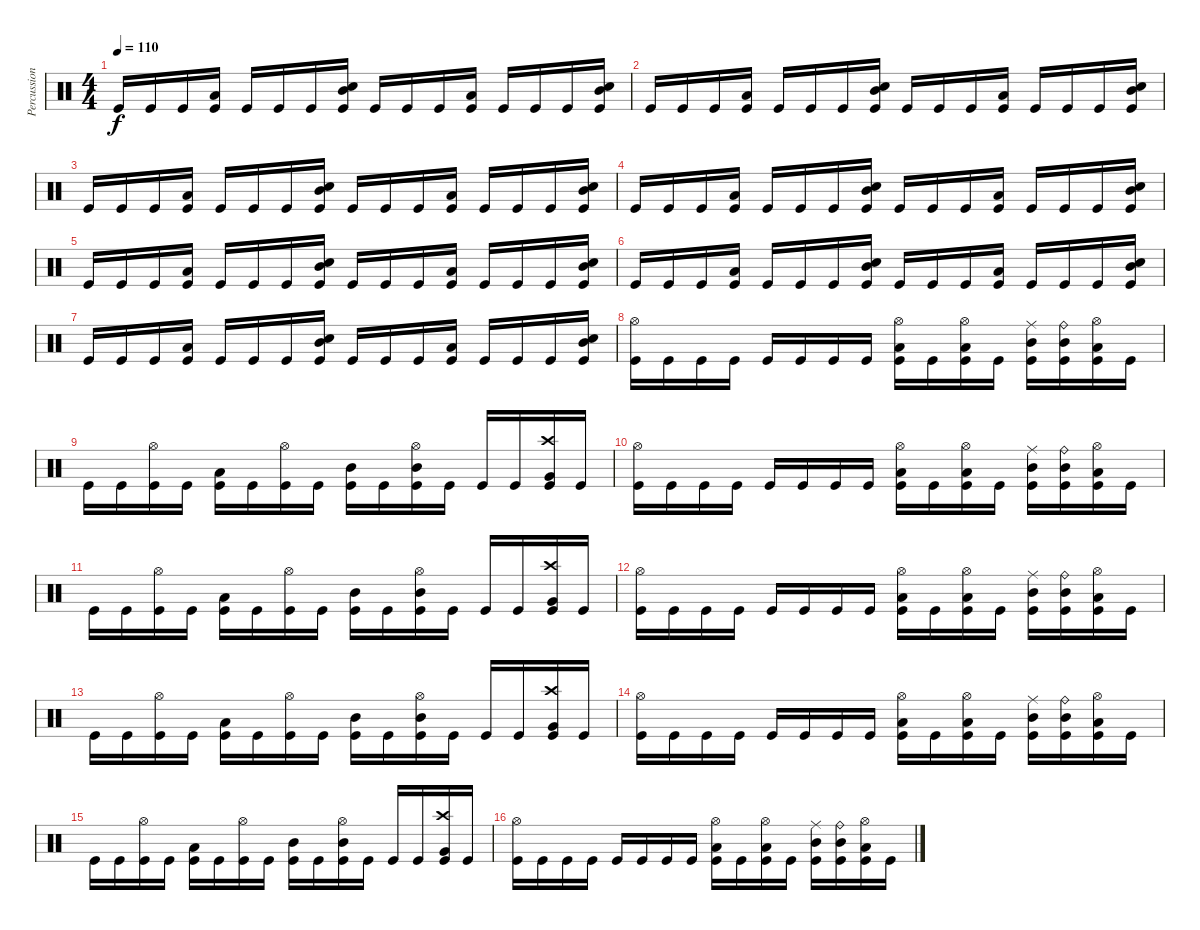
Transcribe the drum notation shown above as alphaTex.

\track ("Percussion" "Percussion") {instrument percussion}
\staff {score}
\articulation defaults
\ts (4 4)
\tempo 110
\clef neutral
\ks c "Kick (hit)".16{dy f} "Kick (hit)".16 "Kick (hit)".16
("Low Tom (hit)" "Kick (hit)").16 "Kick (hit)".16 "Kick (hit)".16 "Kick (hit)".16 ("Mid Tom (hit)" "Electric Snare (hit)" "Kick (hit)").16 "Kick (hit)".16 "Kick (hit)".16 "Kick (hit)".16 ("Low Tom (hit)" "Kick (hit)").16 "Kick (hit)".16 "Kick (hit)".16 "Kick (hit)".16 ("Mid Tom (hit)" "Electric Snare (hit)" "Kick (hit)").16 |
"Kick (hit)".16 "Kick (hit)".16 "Kick (hit)".16 ("Low Tom (hit)" "Kick (hit)").16 "Kick (hit)".16 "Kick (hit)".16 "Kick (hit)".16 ("Mid Tom (hit)" "Electric Snare (hit)" "Kick (hit)").16 "Kick (hit)".16 "Kick (hit)".16 "Kick (hit)".16 ("Low Tom (hit)" "Kick (hit)").16 "Kick (hit)".16 "Kick (hit)".16 "Kick (hit)".16 ("Mid Tom (hit)" "Electric Snare (hit)" "Kick (hit)").16 |
"Kick (hit)".16 "Kick (hit)".16 "Kick (hit)".16 ("Low Tom (hit)" "Kick (hit)").16 "Kick (hit)".16 "Kick (hit)".16 "Kick (hit)".16 ("Mid Tom (hit)" "Electric Snare (hit)" "Kick (hit)").16 "Kick (hit)".16 "Kick (hit)".16 "Kick (hit)".16 ("Low Tom (hit)" "Kick (hit)").16 "Kick (hit)".16 "Kick (hit)".16 "Kick (hit)".16 ("Mid Tom (hit)" "Electric Snare (hit)" "Kick (hit)").16 |
"Kick (hit)".16 "Kick (hit)".16 "Kick (hit)".16 ("Low Tom (hit)" "Kick (hit)").16 "Kick (hit)".16 "Kick (hit)".16 "Kick (hit)".16 ("Mid Tom (hit)" "Electric Snare (hit)" "Kick (hit)").16 "Kick (hit)".16 "Kick (hit)".16 "Kick (hit)".16 ("Low Tom (hit)" "Kick (hit)").16 "Kick (hit)".16 "Kick (hit)".16 "Kick (hit)".16 ("Mid Tom (hit)" "Electric Snare (hit)" "Kick (hit)").16 |
"Kick (hit)".16 "Kick (hit)".16 "Kick (hit)".16 ("Low Tom (hit)" "Kick (hit)").16 "Kick (hit)".16 "Kick (hit)".16 "Kick (hit)".16 ("Mid Tom (hit)" "Electric Snare (hit)" "Kick (hit)").16 "Kick (hit)".16 "Kick (hit)".16 "Kick (hit)".16 ("Low Tom (hit)" "Kick (hit)").16 "Kick (hit)".16 "Kick (hit)".16 "Kick (hit)".16 ("Mid Tom (hit)" "Electric Snare (hit)" "Kick (hit)").16 |
"Kick (hit)".16 "Kick (hit)".16 "Kick (hit)".16 ("Low Tom (hit)" "Kick (hit)").16 "Kick (hit)".16 "Kick (hit)".16 "Kick (hit)".16 ("Mid Tom (hit)" "Electric Snare (hit)" "Kick (hit)").16 "Kick (hit)".16 "Kick (hit)".16 "Kick (hit)".16 ("Low Tom (hit)" "Kick (hit)").16 "Kick (hit)".16 "Kick (hit)".16 "Kick (hit)".16 ("Mid Tom (hit)" "Electric Snare (hit)" "Kick (hit)").16 |
"Kick (hit)".16 "Kick (hit)".16 "Kick (hit)".16 ("Low Tom (hit)" "Kick (hit)").16 "Kick (hit)".16 "Kick (hit)".16 "Kick (hit)".16 ("Mid Tom (hit)" "Electric Snare (hit)" "Kick (hit)").16 "Kick (hit)".16 "Kick (hit)".16 "Kick (hit)".16 ("Low Tom (hit)" "Kick (hit)").16 "Kick (hit)".16 "Kick (hit)".16 "Kick (hit)".16 ("Mid Tom (hit)" "Electric Snare (hit)" "Kick (hit)").16 |
("Hi-Hat (open)" "Kick (hit)").16 "Kick (hit)".16 "Kick (hit)".16 "Kick (hit)".16 "Kick (hit)".16 "Kick (hit)".16 "Kick (hit)".16 "Kick (hit)".16 ("Hi-Hat (open)" "Low Tom (hit)" "Kick (hit)").16 "Kick (hit)".16 ("Hi-Hat (open)" "Low Tom (hit)" "Kick (hit)").16 "Kick (hit)".16 ("Ride (middle)" "Mid Tom (hit)" "Kick (hit)").16 ("Ride (bell)" "Mid Tom (hit)" "Kick (hit)").16 ("Hi-Hat (open)" "Low Tom (hit)" "Kick (hit)").16 "Kick (hit)".16 |
"Kick (hit)".16 "Kick (hit)".16 ("Hi-Hat (open)" "Kick (hit)").16 "Kick (hit)".16 ("Low Tom (hit)" "Kick (hit)").16 "Kick (hit)".16 ("Hi-Hat (open)" "Kick (hit)").16 "Kick (hit)".16 ("Mid Tom (hit)" "Kick (hit)").16 "Kick (hit)".16 ("Hi-Hat (open)" "Mid Tom (hit)" "Kick (hit)").16 "Kick (hit)".16 "Kick (hit)".16 "Kick (hit)".16 ("Crash high (hit)" "Very Low Tom (hit)" "Kick (hit)").16 "Kick (hit)".16 |
("Hi-Hat (open)" "Kick (hit)").16 "Kick (hit)".16 "Kick (hit)".16 "Kick (hit)".16 "Kick (hit)".16 "Kick (hit)".16 "Kick (hit)".16 "Kick (hit)".16 ("Hi-Hat (open)" "Low Tom (hit)" "Kick (hit)").16 "Kick (hit)".16 ("Hi-Hat (open)" "Low Tom (hit)" "Kick (hit)").16 "Kick (hit)".16 ("Ride (middle)" "Mid Tom (hit)" "Kick (hit)").16 ("Ride (bell)" "Mid Tom (hit)" "Kick (hit)").16 ("Hi-Hat (open)" "Low Tom (hit)" "Kick (hit)").16 "Kick (hit)".16 |
"Kick (hit)".16 "Kick (hit)".16 ("Hi-Hat (open)" "Kick (hit)").16 "Kick (hit)".16 ("Low Tom (hit)" "Kick (hit)").16 "Kick (hit)".16 ("Hi-Hat (open)" "Kick (hit)").16 "Kick (hit)".16 ("Mid Tom (hit)" "Kick (hit)").16 "Kick (hit)".16 ("Hi-Hat (open)" "Mid Tom (hit)" "Kick (hit)").16 "Kick (hit)".16 "Kick (hit)".16 "Kick (hit)".16 ("Crash high (hit)" "Very Low Tom (hit)" "Kick (hit)").16 "Kick (hit)".16 |
("Hi-Hat (open)" "Kick (hit)").16 "Kick (hit)".16 "Kick (hit)".16 "Kick (hit)".16 "Kick (hit)".16 "Kick (hit)".16 "Kick (hit)".16 "Kick (hit)".16 ("Hi-Hat (open)" "Low Tom (hit)" "Kick (hit)").16 "Kick (hit)".16 ("Hi-Hat (open)" "Low Tom (hit)" "Kick (hit)").16 "Kick (hit)".16 ("Ride (middle)" "Mid Tom (hit)" "Kick (hit)").16 ("Ride (bell)" "Mid Tom (hit)" "Kick (hit)").16 ("Hi-Hat (open)" "Low Tom (hit)" "Kick (hit)").16 "Kick (hit)".16 |
"Kick (hit)".16 "Kick (hit)".16 ("Hi-Hat (open)" "Kick (hit)").16 "Kick (hit)".16 ("Low Tom (hit)" "Kick (hit)").16 "Kick (hit)".16 ("Hi-Hat (open)" "Kick (hit)").16 "Kick (hit)".16 ("Mid Tom (hit)" "Kick (hit)").16 "Kick (hit)".16 ("Hi-Hat (open)" "Mid Tom (hit)" "Kick (hit)").16 "Kick (hit)".16 "Kick (hit)".16 "Kick (hit)".16 ("Crash high (hit)" "Very Low Tom (hit)" "Kick (hit)").16 "Kick (hit)".16 |
("Hi-Hat (open)" "Kick (hit)").16 "Kick (hit)".16 "Kick (hit)".16 "Kick (hit)".16 "Kick (hit)".16 "Kick (hit)".16 "Kick (hit)".16 "Kick (hit)".16 ("Hi-Hat (open)" "Low Tom (hit)" "Kick (hit)").16 "Kick (hit)".16 ("Hi-Hat (open)" "Low Tom (hit)" "Kick (hit)").16 "Kick (hit)".16 ("Ride (middle)" "Mid Tom (hit)" "Kick (hit)").16 ("Ride (bell)" "Mid Tom (hit)" "Kick (hit)").16 ("Hi-Hat (open)" "Low Tom (hit)" "Kick (hit)").16 "Kick (hit)".16 |
"Kick (hit)".16 "Kick (hit)".16 ("Hi-Hat (open)" "Kick (hit)").16 "Kick (hit)".16 ("Low Tom (hit)" "Kick (hit)").16 "Kick (hit)".16 ("Hi-Hat (open)" "Kick (hit)").16 "Kick (hit)".16 ("Mid Tom (hit)" "Kick (hit)").16 "Kick (hit)".16 ("Hi-Hat (open)" "Mid Tom (hit)" "Kick (hit)").16 "Kick (hit)".16 "Kick (hit)".16 "Kick (hit)".16 ("Crash high (hit)" "Very Low Tom (hit)" "Kick (hit)").16 "Kick (hit)".16 |
("Hi-Hat (open)" "Kick (hit)").16 "Kick (hit)".16 "Kick (hit)".16 "Kick (hit)".16 "Kick (hit)".16 "Kick (hit)".16 "Kick (hit)".16 "Kick (hit)".16 ("Hi-Hat (open)" "Low Tom (hit)" "Kick (hit)").16 "Kick (hit)".16 ("Hi-Hat (open)" "Low Tom (hit)" "Kick (hit)").16 "Kick (hit)".16 ("Ride (middle)" "Mid Tom (hit)" "Kick (hit)").16 ("Ride (bell)" "Mid Tom (hit)" "Kick (hit)").16 ("Hi-Hat (open)" "Low Tom (hit)" "Kick (hit)").16 "Kick (hit)".16
